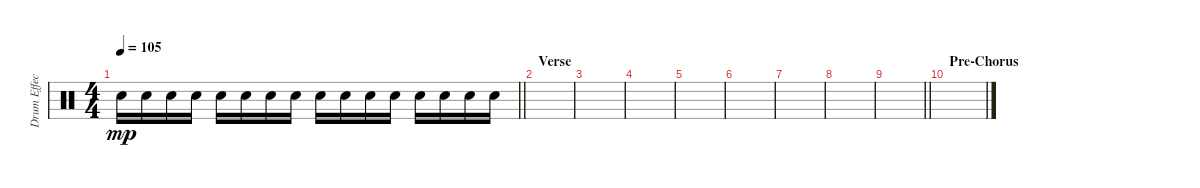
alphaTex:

\track ("Drum Effects" "Drum Effec") {instrument percussion}
\staff {score}
\articulation defaults
\ts (4 4)
\tempo 105
\clef neutral
\barLineRight lightlight
\ks c "Snare (hit) 2".16{dy mp} "Snare (hit) 2".16 "Snare (hit) 2".16 "Snare (hit) 2".16 "Snare (hit) 2".16 "Snare (hit) 2".16 "Snare (hit) 2".16 "Snare (hit) 2".16 "Snare (hit) 2".16 "Snare (hit) 2".16 "Snare (hit) 2".16 "Snare (hit) 2".16 "Snare (hit) 2".16 "Snare (hit) 2".16 "Snare (hit) 2".16 "Snare (hit) 2".16
|
\section ("" "Verse")
|
|
|
|
|
|
|
\barLineRight lightlight
|
\section ("" "Pre-Chorus")
